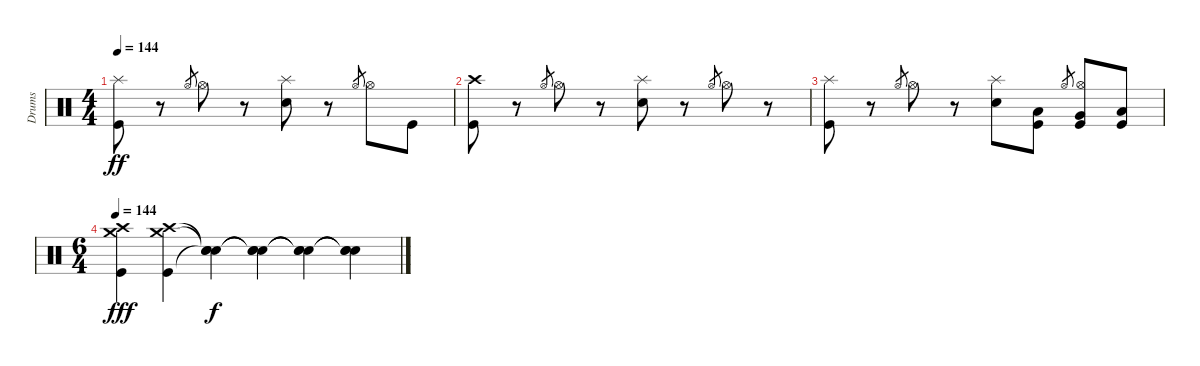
\track ("Drums" "Drums") {instrument percussion}
\staff {score}
\articulation defaults
\ts (4 4)
\tempo 144
\clef neutral
\ks c
("Splash (hit)" "Kick (hit)").8{dy ff} r.8 "Hi-Hat (open)".8{gr} "Hi-Hat (open)".8 r.8 ("Splash (hit)" "Snare (hit) 2").8 r.8 "Hi-Hat (open)".8{gr} "Hi-Hat (open)".8 "Kick (hit)".8 |
("Crash high (hit)" "Kick (hit)").8 r.8 "Hi-Hat (open)".8{gr} "Hi-Hat (open)".8 r.8 ("Splash (hit)" "Snare (hit) 2").8 r.8 "Hi-Hat (open)".8{gr} "Hi-Hat (open)".8 r.8 |
("Splash (hit)" "Kick (hit)").8 r.8 "Hi-Hat (open)".8{gr} "Hi-Hat (open)".8 r.8 ("Splash (hit)" "Snare (hit) 2").8 ("Low Tom (hit)" "Kick (hit)").8 "Hi-Hat (open)".8{gr} ("Hi-Hat (open)" "Very Low Tom (hit)" "Kick (hit)").8 ("Low Floor Tom (hit)" "Kick (hit)").8 |
\ts (6 4)
\tempo 144
("Crash high (hit)" "Crash medium (hit)" "Kick (hit)").4{dy fff} ("Crash high (hit)" "Crash medium (hit)" "Kick (hit)").4 ("Snare (hit)"{t} "Snare (hit)"{t} "Snare (hit)"{t}).4{dy f volume 0} ("Snare (hit)"{t} "Snare (hit)"{t} "Snare (hit)"{t}).4 ("Snare (hit)"{t} "Snare (hit)"{t} "Snare (hit)"{t}).4 ("Snare (hit)"{t} "Snare (hit)"{t} "Snare (hit)"{t}).4
